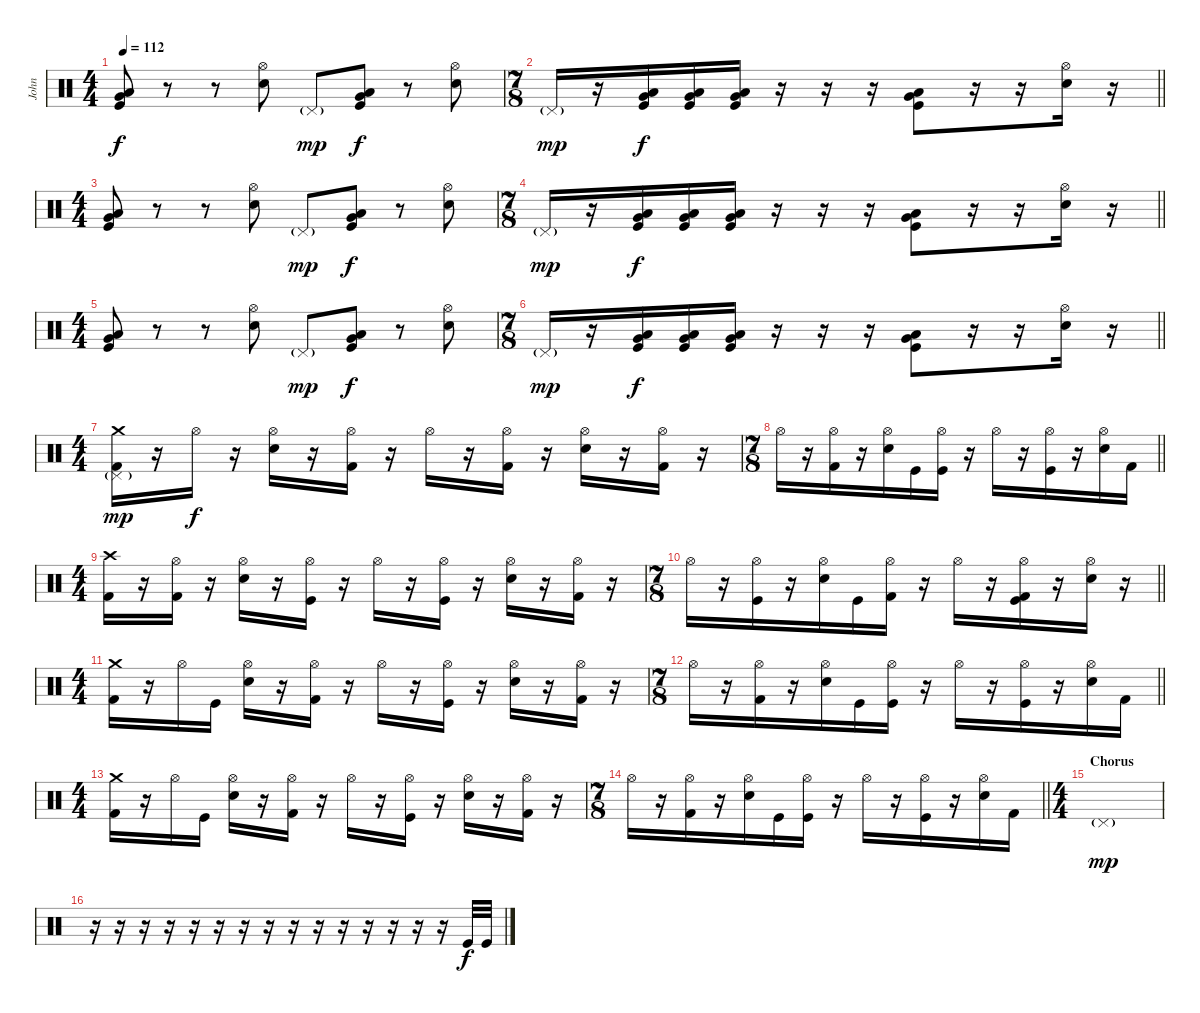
\track ("John" "John") {instrument percussion}
\staff {score}
\articulation defaults
\ts (4 4)
\tempo 112
\clef neutral
\ks c
("Very Low Tom (hit)" "Low Tom (hit)" "Kick (hit)").8{dy f} r.8 r.8 ("Hi-Hat (open)" "Electric Snare (hit)").8 "Pedal Hi-Hat (hit)"{g}.8{dy mp} ("Very Low Tom (hit)" "Low Tom (hit)" "Kick (hit)").8{dy f} r.8 ("Hi-Hat (open)" "Electric Snare (hit)").8 |
\ts (7 8)
\barLineRight lightlight "Pedal Hi-Hat (hit)"{g}.16{dy mp}
r.16 ("Very Low Tom (hit)" "Low Tom (hit)" "Kick (hit)").16{dy f} ("Very Low Tom (hit)" "Low Tom (hit)" "Kick (hit)").16 ("Very Low Tom (hit)" "Low Tom (hit)" "Kick (hit)").16 r.16 r.16 r.16 ("Very Low Tom (hit)" "Low Tom (hit)" "Kick (hit)").8 r.16 r.16 ("Hi-Hat (open)" "Electric Snare (hit)").16 r.16 |
\ts (4 4)
("Very Low Tom (hit)" "Low Tom (hit)" "Kick (hit)").8 r.8 r.8 ("Hi-Hat (open)" "Electric Snare (hit)").8 "Pedal Hi-Hat (hit)"{g}.8{dy mp} ("Very Low Tom (hit)" "Low Tom (hit)" "Kick (hit)").8{dy f} r.8 ("Hi-Hat (open)" "Electric Snare (hit)").8 |
\ts (7 8)
\barLineRight lightlight "Pedal Hi-Hat (hit)"{g}.16{dy mp}
r.16 ("Very Low Tom (hit)" "Low Tom (hit)" "Kick (hit)").16{dy f} ("Very Low Tom (hit)" "Low Tom (hit)" "Kick (hit)").16 ("Very Low Tom (hit)" "Low Tom (hit)" "Kick (hit)").16 r.16 r.16 r.16 ("Very Low Tom (hit)" "Low Tom (hit)" "Kick (hit)").8 r.16 r.16 ("Hi-Hat (open)" "Electric Snare (hit)").16 r.16 |
\ts (4 4)
("Very Low Tom (hit)" "Low Tom (hit)" "Kick (hit)").8 r.8 r.8 ("Hi-Hat (open)" "Electric Snare (hit)").8 "Pedal Hi-Hat (hit)"{g}.8{dy mp} ("Very Low Tom (hit)" "Low Tom (hit)" "Kick (hit)").8{dy f} r.8 ("Hi-Hat (open)" "Electric Snare (hit)").8 |
\ts (7 8)
\barLineRight lightlight "Pedal Hi-Hat (hit)"{g}.16{dy mp}
r.16 ("Very Low Tom (hit)" "Low Tom (hit)" "Kick (hit)").16{dy f} ("Very Low Tom (hit)" "Low Tom (hit)" "Kick (hit)").16 ("Very Low Tom (hit)" "Low Tom (hit)" "Kick (hit)").16 r.16 r.16 r.16 ("Very Low Tom (hit)" "Low Tom (hit)" "Kick (hit)").8 r.16 r.16 ("Hi-Hat (open)" "Electric Snare (hit)").16 r.16 |
\ts (4 4)
\section ("" "")
("Pedal Hi-Hat (hit)"{g} "Crash medium (hit)" "Kick (hit) 2").16{dy mp} r.16 "Hi-Hat (open)".16{dy f} r.16 ("Hi-Hat (open)" "Electric Snare (hit)").16 r.16 ("Hi-Hat (open)" "Kick (hit) 2").16 r.16 "Hi-Hat (open)".16 r.16 ("Hi-Hat (open)" "Kick (hit) 2").16 r.16 ("Hi-Hat (open)" "Electric Snare (hit)").16 r.16 ("Hi-Hat (open)" "Kick (hit) 2").16 r.16 |
\ts (7 8)
\barLineRight lightlight "Hi-Hat (open)".16
r.16 ("Hi-Hat (open)" "Kick (hit) 2").16 r.16 ("Hi-Hat (open)" "Electric Snare (hit)").16 "Kick (hit)".16 ("Hi-Hat (open)" "Kick (hit)").16 r.16 "Hi-Hat (open)".16 r.16 ("Hi-Hat (open)" "Kick (hit)").16 r.16 ("Hi-Hat (open)" "Electric Snare (hit)").16 "Kick (hit) 2".16 |
\ts (4 4)
("Crash high (hit)" "Kick (hit) 2").16 r.16 ("Hi-Hat (open)" "Kick (hit) 2").16 r.16 ("Hi-Hat (open)" "Electric Snare (hit)").16 r.16 ("Hi-Hat (open)" "Kick (hit)").16 r.16 "Hi-Hat (open)".16 r.16 ("Hi-Hat (open)" "Kick (hit)").16 r.16 ("Hi-Hat (open)" "Electric Snare (hit)").16 r.16 ("Hi-Hat (open)" "Kick (hit) 2").16 r.16 |
\ts (7 8)
\barLineRight lightlight "Hi-Hat (open)".16
r.16 ("Hi-Hat (open)" "Kick (hit)").16 r.16 ("Hi-Hat (open)" "Electric Snare (hit)").16 "Kick (hit)".16 ("Hi-Hat (open)" "Kick (hit) 2").16 r.16 "Hi-Hat (open)".16 r.16 ("Hi-Hat (open)" "Kick (hit)" "Kick (hit) 2").16 r.16 ("Hi-Hat (open)" "Electric Snare (hit)").16 r.16 |
\ts (4 4)
("Crash medium (hit)" "Kick (hit) 2").16 r.16 "Hi-Hat (open)".16 "Kick (hit)".16 ("Hi-Hat (open)" "Electric Snare (hit)").16 r.16 ("Hi-Hat (open)" "Kick (hit) 2").16 r.16 "Hi-Hat (open)".16 r.16 ("Hi-Hat (open)" "Kick (hit)").16 r.16 ("Hi-Hat (open)" "Electric Snare (hit)").16 r.16 ("Hi-Hat (open)" "Kick (hit) 2").16 r.16 |
\ts (7 8)
\barLineRight lightlight "Hi-Hat (open)".16
r.16 ("Hi-Hat (open)" "Kick (hit) 2").16 r.16 ("Hi-Hat (open)" "Electric Snare (hit)").16 "Kick (hit)".16 ("Hi-Hat (open)" "Kick (hit)").16 r.16 "Hi-Hat (open)".16 r.16 ("Hi-Hat (open)" "Kick (hit)").16 r.16 ("Hi-Hat (open)" "Electric Snare (hit)").16 "Kick (hit) 2".16 |
\ts (4 4)
("Crash medium (hit)" "Kick (hit) 2").16 r.16 "Hi-Hat (open)".16 "Kick (hit)".16 ("Hi-Hat (open)" "Electric Snare (hit)").16 r.16 ("Hi-Hat (open)" "Kick (hit) 2").16 r.16 "Hi-Hat (open)".16 r.16 ("Hi-Hat (open)" "Kick (hit)").16 r.16 ("Hi-Hat (open)" "Electric Snare (hit)").16 r.16 ("Hi-Hat (open)" "Kick (hit) 2").16 r.16 |
\ts (7 8)
\barLineRight lightlight "Hi-Hat (open)".16
r.16 ("Hi-Hat (open)" "Kick (hit) 2").16 r.16 ("Hi-Hat (open)" "Electric Snare (hit)").16 "Kick (hit)".16 ("Hi-Hat (open)" "Kick (hit)").16 r.16 "Hi-Hat (open)".16 r.16 ("Hi-Hat (open)" "Kick (hit)").16 r.16 ("Hi-Hat (open)" "Electric Snare (hit)").16 "Kick (hit) 2".16 |
\ts (4 4)
\section ("" "Chorus")
"Pedal Hi-Hat (hit)"{g}.1{dy mp} |
r.16 r.16 r.16 r.16 r.16 r.16 r.16 r.16 r.16 r.16 r.16 r.16 r.16 r.16 r.16 "Kick (hit)".32{dy f} "Kick (hit)".32
